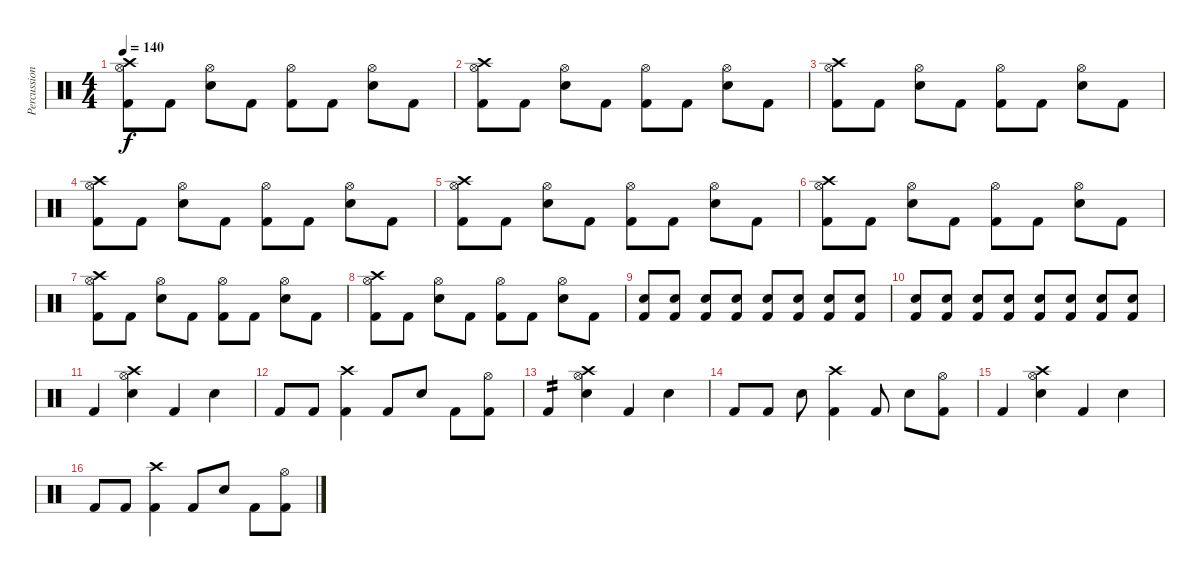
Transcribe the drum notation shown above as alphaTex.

\track ("Percussion" "Percussion") {instrument percussion}
\staff {score}
\articulation defaults
\ts (4 4)
\tempo 140
\clef neutral
\ks c
("Hi-Hat (open)" "Crash high (hit)" "Kick (hit) 2").8{dy f} "Kick (hit) 2".8 ("Hi-Hat (open)" "Electric Snare (hit)").8 "Kick (hit) 2".8 ("Hi-Hat (open)" "Kick (hit) 2").8 "Kick (hit) 2".8 ("Hi-Hat (open)" "Electric Snare (hit)").8 "Kick (hit) 2".8 |
("Hi-Hat (open)" "Crash high (hit)" "Kick (hit) 2").8 "Kick (hit) 2".8 ("Hi-Hat (open)" "Electric Snare (hit)").8 "Kick (hit) 2".8 ("Hi-Hat (open)" "Kick (hit) 2").8 "Kick (hit) 2".8 ("Hi-Hat (open)" "Electric Snare (hit)").8 "Kick (hit) 2".8 |
("Hi-Hat (open)" "Crash high (hit)" "Kick (hit) 2").8 "Kick (hit) 2".8 ("Hi-Hat (open)" "Electric Snare (hit)").8 "Kick (hit) 2".8 ("Hi-Hat (open)" "Kick (hit) 2").8 "Kick (hit) 2".8 ("Hi-Hat (open)" "Electric Snare (hit)").8 "Kick (hit) 2".8 |
("Hi-Hat (open)" "Crash high (hit)" "Kick (hit) 2").8 "Kick (hit) 2".8 ("Hi-Hat (open)" "Electric Snare (hit)").8 "Kick (hit) 2".8 ("Hi-Hat (open)" "Kick (hit) 2").8 "Kick (hit) 2".8 ("Hi-Hat (open)" "Electric Snare (hit)").8 "Kick (hit) 2".8 |
("Hi-Hat (open)" "Crash high (hit)" "Kick (hit) 2").8 "Kick (hit) 2".8 ("Hi-Hat (open)" "Electric Snare (hit)").8 "Kick (hit) 2".8 ("Hi-Hat (open)" "Kick (hit) 2").8 "Kick (hit) 2".8 ("Hi-Hat (open)" "Electric Snare (hit)").8 "Kick (hit) 2".8 |
("Hi-Hat (open)" "Crash high (hit)" "Kick (hit) 2").8 "Kick (hit) 2".8 ("Hi-Hat (open)" "Electric Snare (hit)").8 "Kick (hit) 2".8 ("Hi-Hat (open)" "Kick (hit) 2").8 "Kick (hit) 2".8 ("Hi-Hat (open)" "Electric Snare (hit)").8 "Kick (hit) 2".8 |
("Hi-Hat (open)" "Crash high (hit)" "Kick (hit) 2").8 "Kick (hit) 2".8 ("Hi-Hat (open)" "Electric Snare (hit)").8 "Kick (hit) 2".8 ("Hi-Hat (open)" "Kick (hit) 2").8 "Kick (hit) 2".8 ("Hi-Hat (open)" "Electric Snare (hit)").8 "Kick (hit) 2".8 |
("Hi-Hat (open)" "Crash high (hit)" "Kick (hit) 2").8 "Kick (hit) 2".8 ("Hi-Hat (open)" "Electric Snare (hit)").8 "Kick (hit) 2".8 ("Hi-Hat (open)" "Kick (hit) 2").8 "Kick (hit) 2".8 ("Hi-Hat (open)" "Electric Snare (hit)").8 "Kick (hit) 2".8 |
("Kick (hit) 2" "Electric Snare (hit)").8 ("Kick (hit) 2" "Electric Snare (hit)").8 ("Kick (hit) 2" "Electric Snare (hit)").8 ("Kick (hit) 2" "Electric Snare (hit)").8 ("Kick (hit) 2" "Electric Snare (hit)").8 ("Kick (hit) 2" "Electric Snare (hit)").8 ("Kick (hit) 2" "Electric Snare (hit)").8 ("Kick (hit) 2" "Electric Snare (hit)").8 |
("Kick (hit) 2" "Electric Snare (hit)").8 ("Kick (hit) 2" "Electric Snare (hit)").8 ("Kick (hit) 2" "Electric Snare (hit)").8 ("Kick (hit) 2" "Electric Snare (hit)").8 ("Kick (hit) 2" "Electric Snare (hit)").8 ("Kick (hit) 2" "Electric Snare (hit)").8 ("Kick (hit) 2" "Electric Snare (hit)").8 ("Kick (hit) 2" "Electric Snare (hit)").8 |
"Kick (hit) 2".4 ("Crash high (hit)" "Electric Snare (hit)" "Hi-Hat (open)").4 "Kick (hit) 2".4 "Electric Snare (hit)".4 |
"Kick (hit) 2".8 "Kick (hit) 2".8 ("Crash high (hit)" "Kick (hit) 2").4 "Kick (hit) 2".8 "Electric Snare (hit)".8 "Kick (hit) 2".8 ("Hi-Hat (open)" "Kick (hit) 2").8 |
"Kick (hit) 2".4{tp 2} ("Crash high (hit)" "Electric Snare (hit)" "Hi-Hat (open)").4 "Kick (hit) 2".4 "Electric Snare (hit)".4 |
"Kick (hit) 2".8 "Kick (hit) 2".8 "Electric Snare (hit)".8 ("Crash high (hit)" "Kick (hit) 2").4 "Kick (hit) 2".8 "Electric Snare (hit)".8 ("Hi-Hat (open)" "Kick (hit) 2").8 |
"Kick (hit) 2".4 ("Crash high (hit)" "Electric Snare (hit)" "Hi-Hat (open)").4 "Kick (hit) 2".4 "Electric Snare (hit)".4 |
"Kick (hit) 2".8 "Kick (hit) 2".8 ("Crash high (hit)" "Kick (hit) 2").4 "Kick (hit) 2".8 "Electric Snare (hit)".8 "Kick (hit) 2".8 ("Hi-Hat (open)" "Kick (hit) 2").8
